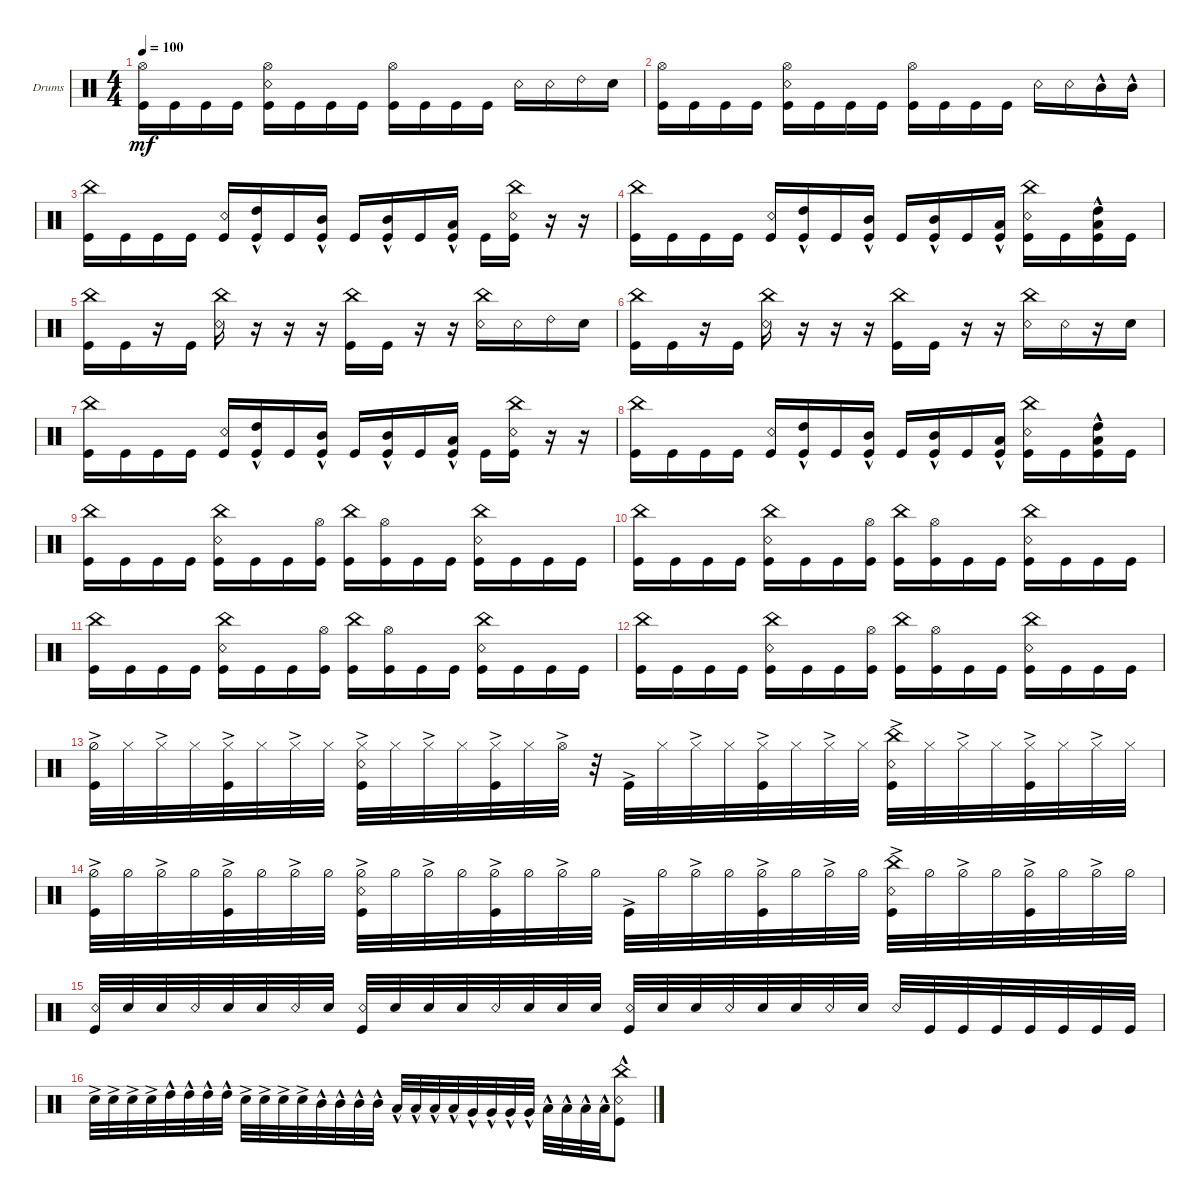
\defaultSystemsLayout 4
\bracketExtendMode groupsimilarinstruments
\firstSystemTrackNameOrientation horizontal
\otherSystemsTrackNameOrientation horizontal
\track ("Drumkit" "Drums") {instrument percussion}
\staff {score}
\articulation defaults
\ts (4 4)
\tempo 100
\clef neutral
\ks c
("Hi-Hat (open)" "Kick (hit)").16{dy mf} "Kick (hit)".16 "Kick (hit)".16 "Kick (hit)".16 ("Snare (rim shot)" "Hi-Hat (open)" "Kick (hit)").16 "Kick (hit)".16 "Kick (hit)".16 "Kick (hit)".16 ("Kick (hit)" "Hi-Hat (open)").16 "Kick (hit)".16 "Kick (hit)".16 "Kick (hit)".16 "Snare (rim shot)".16 "Snare (rim shot)".16 "Ride (bell) 2".16 "Snare (hit) 2".16 |
("Hi-Hat (open)" "Kick (hit)").16 "Kick (hit)".16 "Kick (hit)".16 "Kick (hit)".16 ("Snare (rim shot)" "Hi-Hat (open)" "Kick (hit)").16 "Kick (hit)".16 "Kick (hit)".16 "Kick (hit)".16 ("Kick (hit)" "Hi-Hat (open)").16 "Kick (hit)".16 "Kick (hit)".16 "Kick (hit)".16 "Snare (rim shot)".16 "Snare (rim shot)".16 "Mid Tom (hit)"{hac}.16 "Mid Tom (hit)"{hac}.16 |
("China (hit)" "Kick (hit)").16 "Kick (hit)".16 "Kick (hit)".16 "Kick (hit)".16 ("Kick (hit)" "Snare (rim shot)").16 ("Kick (hit)" "High Tom (hit)"{hac}).16 "Kick (hit)".16 ("Kick (hit)" "Mid Tom (hit)"{hac}).16 "Kick (hit)".16 ("Kick (hit)" "Mid Tom (hit)"{hac}).16 "Kick (hit)".16 ("Kick (hit)" "Low Tom (hit)"{hac}).16 "Kick (hit)".16 ("Kick (hit)" "Snare (rim shot)" "China (hit)").16 r.16 r.16 |
("China (hit)" "Kick (hit)").16 "Kick (hit)".16 "Kick (hit)".16 "Kick (hit)".16 ("Kick (hit)" "Snare (rim shot)").16 ("Kick (hit)" "High Tom (hit)"{hac}).16 "Kick (hit)".16 ("Kick (hit)" "Mid Tom (hit)"{hac}).16 "Kick (hit)".16 ("Kick (hit)" "Mid Tom (hit)"{hac}).16 "Kick (hit)".16 ("Kick (hit)" "Low Tom (hit)"{hac}).16 ("Kick (hit)" "China (hit)" "Snare (rim shot)").16 "Kick (hit)".16 ("Kick (hit)"{hac} "High Tom (hit)"{hac} "Low Tom (hit)"{hac}).16 "Kick (hit)".16 |
("Kick (hit)" "China (hit)").16 "Kick (hit)".16 r.16 "Kick (hit)".16 ("Snare (rim shot)" "China (hit)").16 r.16 r.16 r.16 ("Kick (hit)" "China (hit)").16 "Kick (hit)".16 r.16 r.16 ("Snare (rim shot)" "China (hit)").16 "Snare (rim shot)".16 "Ride (bell) 2".16 "Snare (hit) 2".16 |
("Kick (hit)" "China (hit)").16 "Kick (hit)".16 r.16 "Kick (hit)".16 ("Snare (rim shot)" "China (hit)").16 r.16 r.16 r.16 ("Kick (hit)" "China (hit)").16 "Kick (hit)".16 r.16 r.16 ("Snare (rim shot)" "China (hit)").16 "Snare (rim shot)".16 r.16 "Snare (hit) 2".16 |
("China (hit)" "Kick (hit)").16 "Kick (hit)".16 "Kick (hit)".16 "Kick (hit)".16 ("Kick (hit)" "Snare (rim shot)").16 ("Kick (hit)" "High Tom (hit)"{hac}).16 "Kick (hit)".16 ("Kick (hit)" "Mid Tom (hit)"{hac}).16 "Kick (hit)".16 ("Kick (hit)" "Mid Tom (hit)"{hac}).16 "Kick (hit)".16 ("Kick (hit)" "Low Tom (hit)"{hac}).16 "Kick (hit)".16 ("Kick (hit)" "Snare (rim shot)" "China (hit)").16 r.16 r.16 |
("China (hit)" "Kick (hit)").16 "Kick (hit)".16 "Kick (hit)".16 "Kick (hit)".16 ("Kick (hit)" "Snare (rim shot)").16 ("Kick (hit)" "High Tom (hit)"{hac}).16 "Kick (hit)".16 ("Kick (hit)" "Mid Tom (hit)"{hac}).16 "Kick (hit)".16 ("Kick (hit)" "Mid Tom (hit)"{hac}).16 "Kick (hit)".16 ("Kick (hit)" "Low Tom (hit)"{hac}).16 ("Kick (hit)" "China (hit)" "Snare (rim shot)").16 "Kick (hit)".16 ("Kick (hit)"{hac} "High Tom (hit)"{hac} "Low Tom (hit)"{hac}).16 "Kick (hit)".16 |
("Kick (hit)" "China (hit)").16 "Kick (hit)".16 "Kick (hit)".16 "Kick (hit)".16 ("Kick (hit)" "Snare (rim shot)" "China (hit)").16 "Kick (hit)".16 "Kick (hit)".16 ("Kick (hit)" "Hi-Hat (open)").16 ("Kick (hit)" "China (hit)").16 ("Kick (hit)" "Hi-Hat (open)").16 "Kick (hit)".16 "Kick (hit)".16 ("Kick (hit)" "China (hit)" "Snare (rim shot)").16 "Kick (hit)".16 "Kick (hit)".16 "Kick (hit)".16 |
("Kick (hit)" "China (hit)").16 "Kick (hit)".16 "Kick (hit)".16 "Kick (hit)".16 ("Kick (hit)" "Snare (rim shot)" "China (hit)").16 "Kick (hit)".16 "Kick (hit)".16 ("Kick (hit)" "Hi-Hat (open)").16 ("Kick (hit)" "China (hit)").16 ("Kick (hit)" "Hi-Hat (open)").16 "Kick (hit)".16 "Kick (hit)".16 ("Kick (hit)" "China (hit)" "Snare (rim shot)").16 "Kick (hit)".16 "Kick (hit)".16 "Kick (hit)".16 |
("Kick (hit)" "China (hit)").16 "Kick (hit)".16 "Kick (hit)".16 "Kick (hit)".16 ("Kick (hit)" "Snare (rim shot)" "China (hit)").16 "Kick (hit)".16 "Kick (hit)".16 ("Kick (hit)" "Hi-Hat (open)").16 ("Kick (hit)" "China (hit)").16 ("Kick (hit)" "Hi-Hat (open)").16 "Kick (hit)".16 "Kick (hit)".16 ("Kick (hit)" "China (hit)" "Snare (rim shot)").16 "Kick (hit)".16 "Kick (hit)".16 "Kick (hit)".16 |
("Kick (hit)" "China (hit)").16 "Kick (hit)".16 "Kick (hit)".16 "Kick (hit)".16 ("Kick (hit)" "Snare (rim shot)" "China (hit)").16 "Kick (hit)".16 "Kick (hit)".16 ("Kick (hit)" "Hi-Hat (open)").16 ("Kick (hit)" "China (hit)").16 ("Kick (hit)" "Hi-Hat (open)").16 "Kick (hit)".16 "Kick (hit)".16 ("Kick (hit)" "China (hit)" "Snare (rim shot)").16 "Kick (hit)".16 "Kick (hit)".16 "Kick (hit)".16 |
("Kick (hit)"{ac} "Hi-Hat (half)").32 "Hi-Hat (closed)".32 "Hi-Hat (closed)"{ac}.32 "Hi-Hat (closed)".32 ("Hi-Hat (closed)"{ac} "Kick (hit)"{ac}).32 "Hi-Hat (closed)".32 "Hi-Hat (closed)"{ac}.32 "Hi-Hat (closed)".32 ("Hi-Hat (closed)"{ac} "Snare (rim shot)" "Kick (hit)"{ac}).32 "Hi-Hat (closed)".32 "Hi-Hat (closed)"{ac}.32 "Hi-Hat (closed)".32 ("Hi-Hat (closed)"{ac} "Kick (hit)"{ac}).32 "Hi-Hat (closed)".32 "Hi-Hat (open)"{ac}.32 r.32 "Kick (hit)"{ac}.32 "Hi-Hat (closed)".32 "Hi-Hat (closed)"{ac}.32 "Hi-Hat (closed)".32 ("Hi-Hat (closed)"{ac} "Kick (hit)"{ac}).32 "Hi-Hat (closed)".32 "Hi-Hat (closed)"{ac}.32 "Hi-Hat (closed)".32 ("Snare (rim shot)" "China (hit)"{ac} "Kick (hit)"{ac}).32 "Hi-Hat (closed)".32 "Hi-Hat (closed)"{ac}.32 "Hi-Hat (closed)".32 ("Hi-Hat (closed)"{ac} "Kick (hit)"{ac}).32 "Hi-Hat (closed)".32 "Hi-Hat (closed)"{ac}.32 "Hi-Hat (closed)".32 |
("Kick (hit)"{ac} "Hi-Hat (half)").32 "Hi-Hat (half)".32 "Hi-Hat (half)"{ac}.32 "Hi-Hat (half)".32 ("Hi-Hat (half)"{ac} "Kick (hit)"{ac}).32 "Hi-Hat (half)".32 "Hi-Hat (half)"{ac}.32 "Hi-Hat (half)".32 ("Hi-Hat (half)"{ac} "Snare (rim shot)" "Kick (hit)"{ac}).32 "Hi-Hat (half)".32 "Hi-Hat (half)"{ac}.32 "Hi-Hat (half)".32 ("Hi-Hat (half)"{ac} "Kick (hit)"{ac}).32 "Hi-Hat (half)".32 "Hi-Hat (half)"{ac}.32 "Hi-Hat (half)".32 "Kick (hit)"{ac}.32 "Hi-Hat (half)".32 "Hi-Hat (half)"{ac}.32 "Hi-Hat (half)".32 ("Hi-Hat (half)"{ac} "Kick (hit)"{ac}).32 "Hi-Hat (half)".32 "Hi-Hat (half)"{ac}.32 "Hi-Hat (half)".32 ("Snare (rim shot)" "China (hit)"{ac} "Kick (hit)"{ac}).32 "Hi-Hat (half)".32 "Hi-Hat (half)"{ac}.32 "Hi-Hat (half)".32 ("Hi-Hat (half)"{ac} "Kick (hit)"{ac}).32 "Hi-Hat (half)".32 "Hi-Hat (half)"{ac}.32 "Hi-Hat (half)".32 |
("Kick (hit)" "Snare (rim shot)").32 "Snare (hit) 2".32 "Snare (hit) 2".32 "Snare (rim shot)".32 "Snare (hit) 2".32 "Snare (hit) 2".32 "Snare (rim shot)".32 "Snare (hit) 2".32 ("Snare (rim shot)" "Kick (hit)").32 "Snare (hit) 2".32 "Snare (hit) 2".32 "Snare (hit) 2".32 "Snare (rim shot)".32 "Snare (hit) 2".32 "Snare (hit) 2".32 "Snare (hit) 2".32 ("Snare (rim shot)" "Kick (hit)").32 "Snare (hit) 2".32 "Snare (hit) 2".32 "Snare (rim shot)".32 "Snare (hit) 2".32 "Snare (hit) 2".32 "Snare (rim shot)".32 "Snare (hit) 2".32 "Snare (rim shot)".32 "Kick (hit)".32 "Kick (hit)".32 "Kick (hit)".32 "Kick (hit)".32 "Kick (hit)".32 "Kick (hit)".32 "Kick (hit)".32 |
"Snare (hit) 2"{ac}.32 "Snare (hit) 2"{ac}.32 "Snare (hit) 2"{ac}.32 "Snare (hit) 2"{ac}.32 "High Tom (hit)"{hac}.32 "High Tom (hit)"{hac}.32 "High Tom (hit)"{hac}.32 "High Tom (hit)"{hac}.32 "Snare (hit) 2"{ac}.32 "Snare (hit) 2"{ac}.32 "Snare (hit) 2"{ac}.32 "Snare (hit) 2"{ac}.32 "Mid Tom (hit)"{hac}.32 "Mid Tom (hit)"{hac}.32 "Mid Tom (hit)"{hac}.32 "Mid Tom (hit)"{hac}.32 "Low Tom (hit)"{hac}.32 "Low Tom (hit)"{hac}.32 "Low Tom (hit)"{hac}.32 "Low Tom (hit)"{hac}.32 "Very Low Tom (hit)"{hac}.32 "Very Low Tom (hit)"{hac}.32 "Very Low Tom (hit)"{hac}.32 "Very Low Tom (hit)"{hac}.32 "Low Tom (hit)"{hac}.32 "Low Tom (hit)"{hac}.32 "Low Tom (hit)"{hac}.32 "Low Tom (hit)"{hac}.32 ("Kick (hit)"{hac} "Snare (rim shot)" "China (hit)").8
